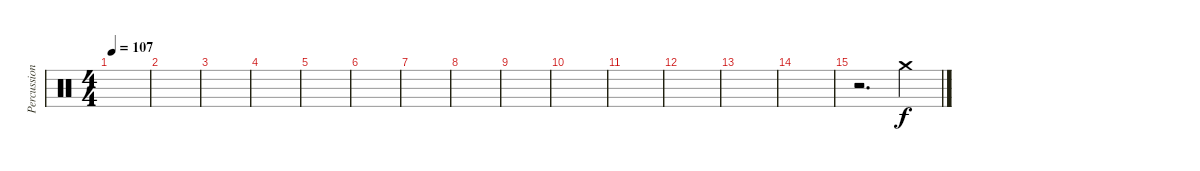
\track ("Percussions" "Percussion") {instrument percussion}
\staff {score}
\articulation defaults
\ts (4 4)
\tempo 107
\clef neutral
\ks c
|
|
|
|
|
|
|
|
|
|
|
|
|
|
r.2{d} "Crash medium (hit)".4
